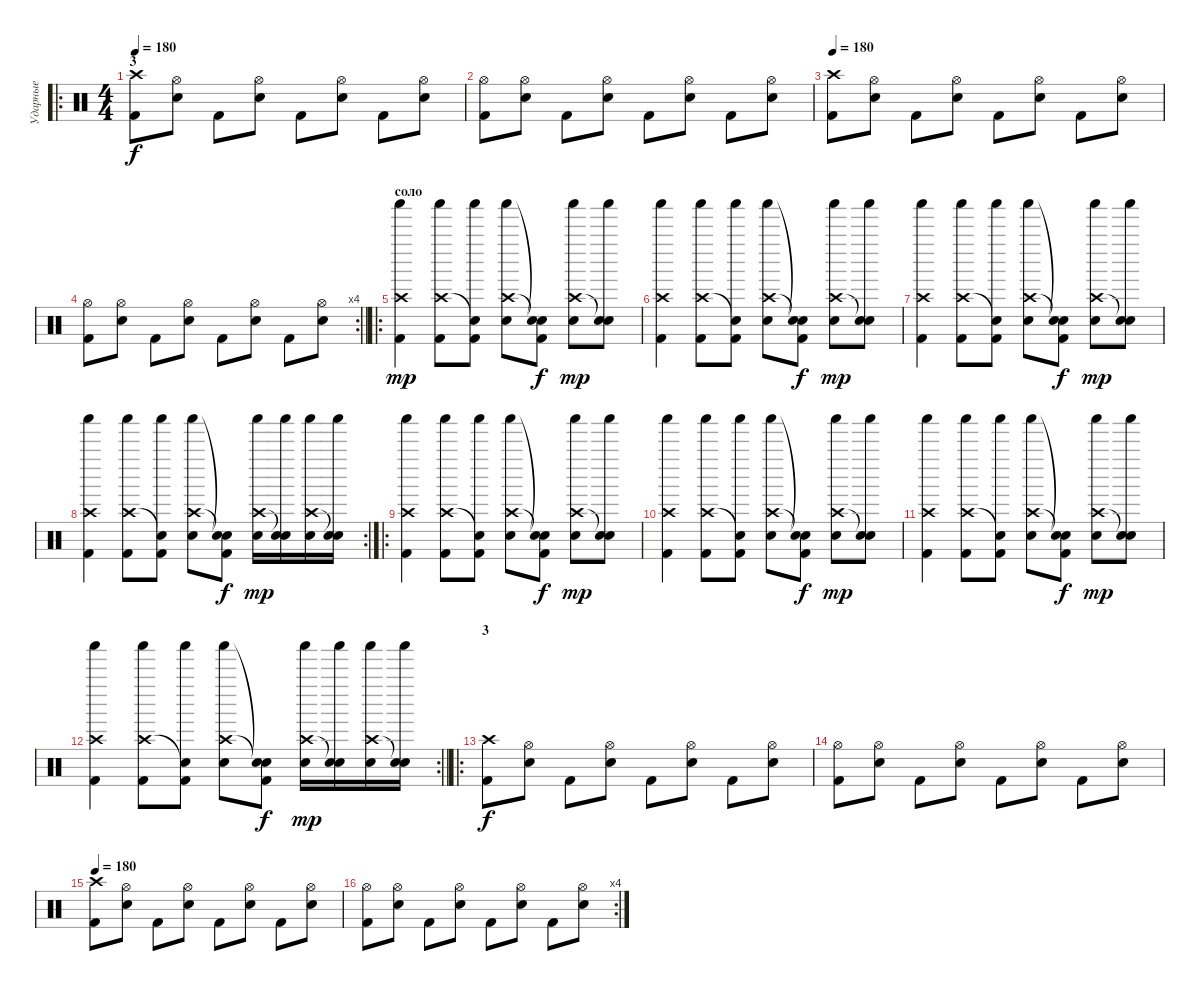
\track ("Ударные" "Ударные") {instrument percussion}
\staff {score}
\articulation defaults
\ro
\ts (4 4)
\section ("" "3")
\tempo 180
\clef neutral
\ks c
("Crash high (hit)" "Kick (hit) 2").8{dy f} ("Hi-Hat (open)" "Electric Snare (hit)").8 "Kick (hit) 2".8 ("Hi-Hat (open)" "Electric Snare (hit)").8 "Kick (hit) 2".8 ("Hi-Hat (open)" "Electric Snare (hit)").8 "Kick (hit) 2".8 ("Hi-Hat (open)" "Electric Snare (hit)").8 |
("Hi-Hat (open)" "Kick (hit) 2").8 ("Hi-Hat (open)" "Electric Snare (hit)").8 "Kick (hit) 2".8 ("Hi-Hat (open)" "Electric Snare (hit)").8 "Kick (hit) 2".8 ("Hi-Hat (open)" "Electric Snare (hit)").8 "Kick (hit) 2".8 ("Hi-Hat (open)" "Electric Snare (hit)").8 |
\tempo 180
("Crash high (hit)" "Kick (hit) 2").8 ("Hi-Hat (open)" "Electric Snare (hit)").8 "Kick (hit) 2".8 ("Hi-Hat (open)" "Electric Snare (hit)").8 "Kick (hit) 2".8 ("Hi-Hat (open)" "Electric Snare (hit)").8 "Kick (hit) 2".8 ("Hi-Hat (open)" "Electric Snare (hit)").8 |
\rc 4
\barLineRight lightlight
("Hi-Hat (open)" "Kick (hit) 2").8 ("Hi-Hat (open)" "Electric Snare (hit)").8 "Kick (hit) 2".8 ("Hi-Hat (open)" "Electric Snare (hit)").8 "Kick (hit) 2".8 ("Hi-Hat (open)" "Electric Snare (hit)").8 "Kick (hit) 2".8 ("Hi-Hat (open)" "Electric Snare (hit)").8 |
\ro
\section ("" "соло")
("Crash high (hit)" "Shaker (hit)" "Kick (hit) 2").4{dy mp} ("Crash high (hit)" "Shaker (hit)" "Kick (hit) 2").8 ("Snare (hit)"{t} "Shaker (hit)" "Kick (hit) 2").8 ("Crash high (hit)" "Shaker (hit)" "Electric Snare (hit)").8 ("Snare (hit)"{t} "Snare (hit)"{t} "Kick (hit) 2").8{dy f} ("Crash high (hit)" "Shaker (hit)" "Electric Snare (hit)").8{dy mp} ("Snare (hit)"{t} "Shaker (hit)" "Electric Snare (hit)").8 |
("Crash high (hit)" "Shaker (hit)" "Kick (hit) 2").4 ("Crash high (hit)" "Shaker (hit)" "Kick (hit) 2").8 ("Snare (hit)"{t} "Shaker (hit)" "Kick (hit) 2").8 ("Crash high (hit)" "Shaker (hit)" "Electric Snare (hit)").8 ("Snare (hit)"{t} "Snare (hit)"{t} "Kick (hit) 2").8{dy f} ("Crash high (hit)" "Shaker (hit)" "Electric Snare (hit)").8{dy mp} ("Snare (hit)"{t} "Shaker (hit)" "Electric Snare (hit)").8 |
("Crash high (hit)" "Shaker (hit)" "Kick (hit) 2").4 ("Crash high (hit)" "Shaker (hit)" "Kick (hit) 2").8 ("Snare (hit)"{t} "Shaker (hit)" "Kick (hit) 2").8 ("Crash high (hit)" "Shaker (hit)" "Electric Snare (hit)").8 ("Snare (hit)"{t} "Snare (hit)"{t} "Kick (hit) 2").8{dy f} ("Crash high (hit)" "Shaker (hit)" "Electric Snare (hit)").8{dy mp} ("Snare (hit)"{t} "Shaker (hit)" "Electric Snare (hit)").8 |
\rc 2
("Crash high (hit)" "Shaker (hit)" "Kick (hit) 2").4 ("Crash high (hit)" "Shaker (hit)" "Kick (hit) 2").8 ("Snare (hit)"{t} "Shaker (hit)" "Kick (hit) 2").8 ("Crash high (hit)" "Shaker (hit)" "Electric Snare (hit)").8 ("Snare (hit)"{t} "Snare (hit)"{t} "Kick (hit) 2").8{dy f} ("Crash high (hit)" "Shaker (hit)" "Electric Snare (hit)").16{dy mp} ("Snare (hit)"{t} "Shaker (hit)" "Electric Snare (hit)").16 ("Crash high (hit)" "Shaker (hit)" "Electric Snare (hit)").16 ("Snare (hit)"{t} "Shaker (hit)" "Electric Snare (hit)").16 |
\ro
("Crash high (hit)" "Shaker (hit)" "Kick (hit) 2").4 ("Crash high (hit)" "Shaker (hit)" "Kick (hit) 2").8 ("Snare (hit)"{t} "Shaker (hit)" "Kick (hit) 2").8 ("Crash high (hit)" "Shaker (hit)" "Electric Snare (hit)").8 ("Snare (hit)"{t} "Snare (hit)"{t} "Kick (hit) 2").8{dy f} ("Crash high (hit)" "Shaker (hit)" "Electric Snare (hit)").8{dy mp} ("Snare (hit)"{t} "Shaker (hit)" "Electric Snare (hit)").8 |
("Crash high (hit)" "Shaker (hit)" "Kick (hit) 2").4 ("Crash high (hit)" "Shaker (hit)" "Kick (hit) 2").8 ("Snare (hit)"{t} "Shaker (hit)" "Kick (hit) 2").8 ("Crash high (hit)" "Shaker (hit)" "Electric Snare (hit)").8 ("Snare (hit)"{t} "Snare (hit)"{t} "Kick (hit) 2").8{dy f} ("Crash high (hit)" "Shaker (hit)" "Electric Snare (hit)").8{dy mp} ("Snare (hit)"{t} "Shaker (hit)" "Electric Snare (hit)").8 |
("Crash high (hit)" "Shaker (hit)" "Kick (hit) 2").4 ("Crash high (hit)" "Shaker (hit)" "Kick (hit) 2").8 ("Snare (hit)"{t} "Shaker (hit)" "Kick (hit) 2").8 ("Crash high (hit)" "Shaker (hit)" "Electric Snare (hit)").8 ("Snare (hit)"{t} "Snare (hit)"{t} "Kick (hit) 2").8{dy f} ("Crash high (hit)" "Shaker (hit)" "Electric Snare (hit)").8{dy mp} ("Snare (hit)"{t} "Shaker (hit)" "Electric Snare (hit)").8 |
\rc 2
\barLineRight lightlight
("Crash high (hit)" "Shaker (hit)" "Kick (hit) 2").4 ("Crash high (hit)" "Shaker (hit)" "Kick (hit) 2").8 ("Snare (hit)"{t} "Shaker (hit)" "Kick (hit) 2").8 ("Crash high (hit)" "Shaker (hit)" "Electric Snare (hit)").8 ("Snare (hit)"{t} "Snare (hit)"{t} "Kick (hit) 2").8{dy f} ("Crash high (hit)" "Shaker (hit)" "Electric Snare (hit)").16{dy mp} ("Snare (hit)"{t} "Shaker (hit)" "Electric Snare (hit)").16 ("Crash high (hit)" "Shaker (hit)" "Electric Snare (hit)").16 ("Snare (hit)"{t} "Shaker (hit)" "Electric Snare (hit)").16 |
\ro
\section ("" "3")
("Crash high (hit)" "Kick (hit) 2").8{dy f} ("Hi-Hat (open)" "Electric Snare (hit)").8 "Kick (hit) 2".8 ("Hi-Hat (open)" "Electric Snare (hit)").8 "Kick (hit) 2".8 ("Hi-Hat (open)" "Electric Snare (hit)").8 "Kick (hit) 2".8 ("Hi-Hat (open)" "Electric Snare (hit)").8 |
("Hi-Hat (open)" "Kick (hit) 2").8 ("Hi-Hat (open)" "Electric Snare (hit)").8 "Kick (hit) 2".8 ("Hi-Hat (open)" "Electric Snare (hit)").8 "Kick (hit) 2".8 ("Hi-Hat (open)" "Electric Snare (hit)").8 "Kick (hit) 2".8 ("Hi-Hat (open)" "Electric Snare (hit)").8 |
\tempo 180
("Crash high (hit)" "Kick (hit) 2").8 ("Hi-Hat (open)" "Electric Snare (hit)").8 "Kick (hit) 2".8 ("Hi-Hat (open)" "Electric Snare (hit)").8 "Kick (hit) 2".8 ("Hi-Hat (open)" "Electric Snare (hit)").8 "Kick (hit) 2".8 ("Hi-Hat (open)" "Electric Snare (hit)").8 |
\rc 4
("Hi-Hat (open)" "Kick (hit) 2").8 ("Hi-Hat (open)" "Electric Snare (hit)").8 "Kick (hit) 2".8 ("Hi-Hat (open)" "Electric Snare (hit)").8 "Kick (hit) 2".8 ("Hi-Hat (open)" "Electric Snare (hit)").8 "Kick (hit) 2".8 ("Hi-Hat (open)" "Electric Snare (hit)").8
